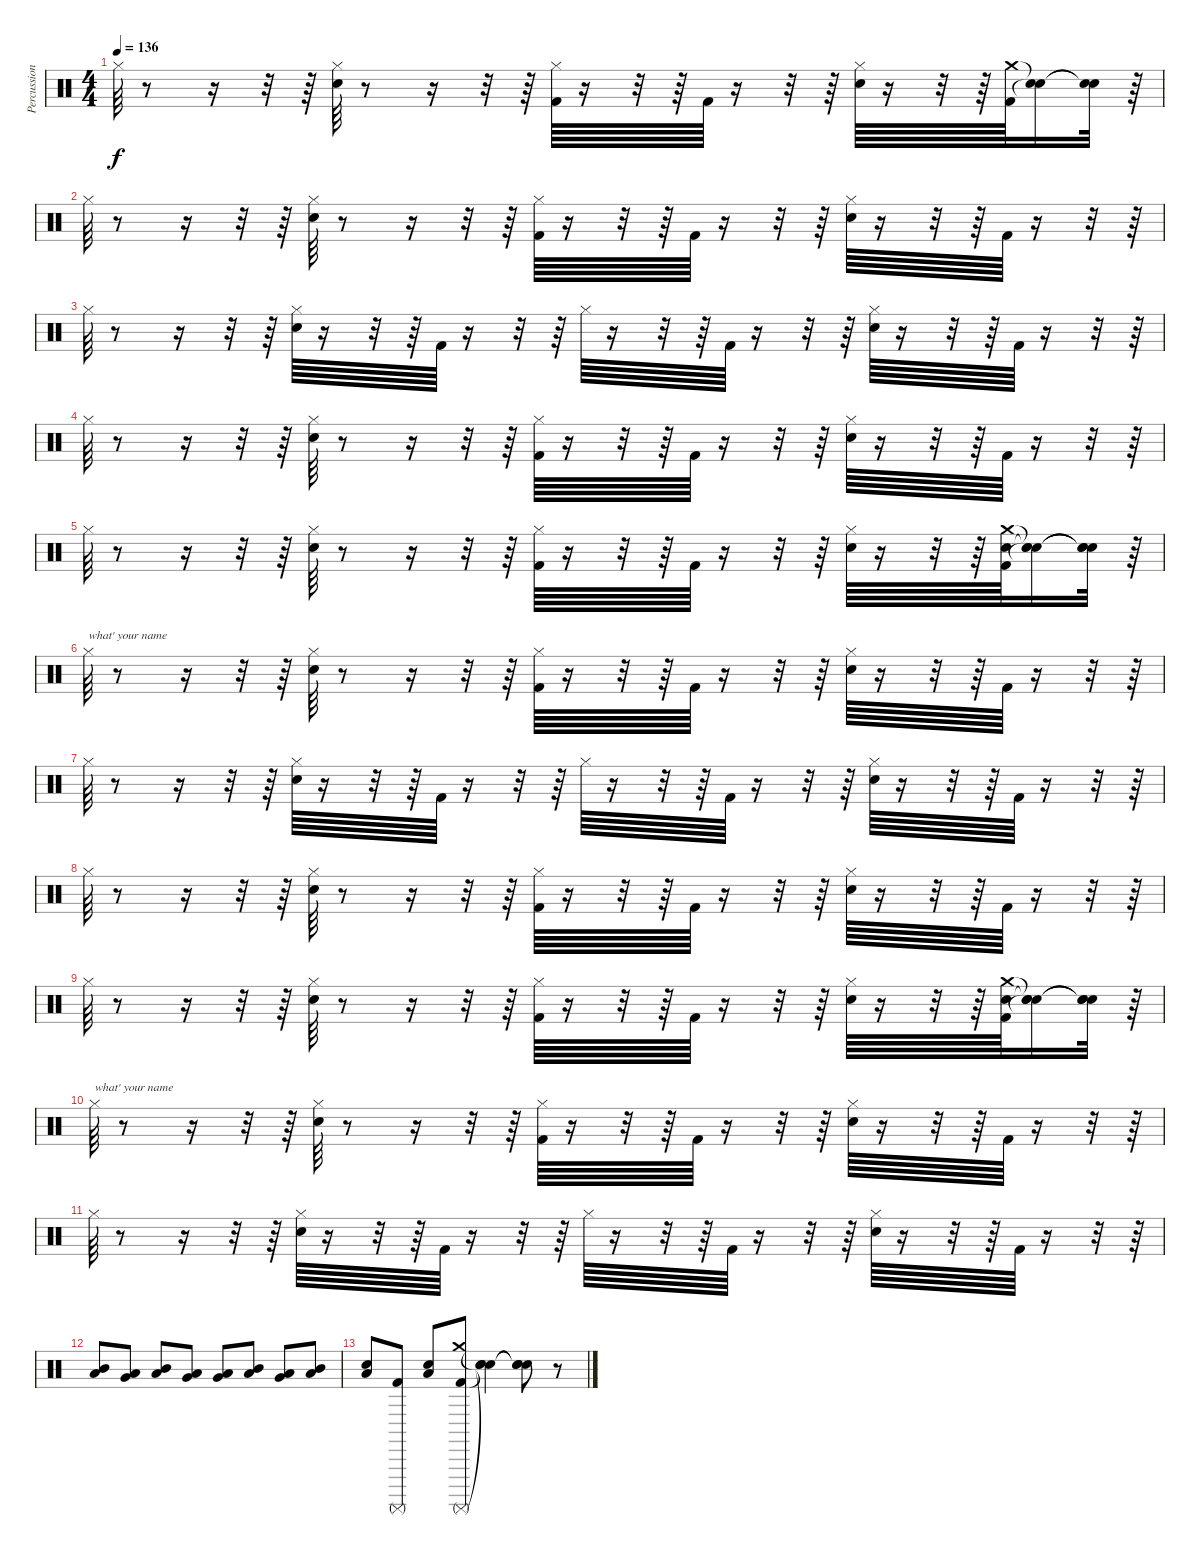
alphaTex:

\track ("Percussions" "Percussion") {instrument percussion}
\staff {score}
\articulation defaults
\ts (4 4)
\tempo 136
\clef neutral
\ks c "Hi-Hat (closed)".64{dy f}
r.8 r.16 r.32 r.64 ("Snare (hit) 2" "Hi-Hat (closed)").64 r.8 r.16 r.32 r.64 ("Kick (hit) 2" "Hi-Hat (closed)").64 r.16 r.32 r.64 "Kick (hit) 2".64 r.16 r.32 r.64 ("Snare (hit) 2" "Hi-Hat (closed)").64 r.16 r.32 r.64 ("Kick (hit) 2" "Crash medium (hit)").64 ("Snare (hit)"{t} "Snare (hit)"{t}).16 ("Snare (hit)"{t} "Snare (hit)"{t}).32 r.64 |
"Hi-Hat (closed)".64 r.8 r.16 r.32 r.64 ("Snare (hit) 2" "Hi-Hat (closed)").64 r.8 r.16 r.32 r.64 ("Kick (hit) 2" "Hi-Hat (closed)").64 r.16 r.32 r.64 "Kick (hit) 2".64 r.16 r.32 r.64 ("Snare (hit) 2" "Hi-Hat (closed)").64 r.16 r.32 r.64 "Kick (hit) 2".64 r.16 r.32 r.64 |
"Hi-Hat (closed)".64 r.8 r.16 r.32 r.64 ("Snare (hit) 2" "Hi-Hat (closed)").64 r.16 r.32 r.64 "Kick (hit) 2".64 r.16 r.32 r.64 "Hi-Hat (closed)".64 r.16 r.32 r.64 "Kick (hit) 2".64 r.16 r.32 r.64 ("Snare (hit) 2" "Hi-Hat (closed)").64 r.16 r.32 r.64 "Kick (hit) 2".64 r.16 r.32 r.64 |
"Hi-Hat (closed)".64 r.8 r.16 r.32 r.64 ("Snare (hit) 2" "Hi-Hat (closed)").64 r.8 r.16 r.32 r.64 ("Kick (hit) 2" "Hi-Hat (closed)").64 r.16 r.32 r.64 "Kick (hit) 2".64 r.16 r.32 r.64 ("Snare (hit) 2" "Hi-Hat (closed)").64 r.16 r.32 r.64 "Kick (hit) 2".64 r.16 r.32 r.64 |
"Hi-Hat (closed)".64 r.8 r.16 r.32 r.64 ("Snare (hit) 2" "Hi-Hat (closed)").64 r.8 r.16 r.32 r.64 ("Kick (hit) 2" "Hi-Hat (closed)").64 r.16 r.32 r.64 "Kick (hit) 2".64 r.16 r.32 r.64 ("Snare (hit) 2" "Hi-Hat (closed)").64 r.16 r.32 r.64 ("Kick (hit) 2" "Snare (hit) 2" "Crash medium (hit)").64 ("Snare (hit)"{t} "Snare (hit)"{t} "Snare (hit)"{t}).16 ("Snare (hit)"{t} "Snare (hit)"{t} "Snare (hit)"{t}).32 r.64 |
"Hi-Hat (closed)".64{txt "what' your name"} r.8 r.16 r.32 r.64 ("Snare (hit) 2" "Hi-Hat (closed)").64 r.8 r.16 r.32 r.64 ("Kick (hit) 2" "Hi-Hat (closed)").64 r.16 r.32 r.64 "Kick (hit) 2".64 r.16 r.32 r.64 ("Snare (hit) 2" "Hi-Hat (closed)").64 r.16 r.32 r.64 "Kick (hit) 2".64 r.16 r.32 r.64 |
"Hi-Hat (closed)".64 r.8 r.16 r.32 r.64 ("Snare (hit) 2" "Hi-Hat (closed)").64 r.16 r.32 r.64 "Kick (hit) 2".64 r.16 r.32 r.64 "Hi-Hat (closed)".64 r.16 r.32 r.64 "Kick (hit) 2".64 r.16 r.32 r.64 ("Snare (hit) 2" "Hi-Hat (closed)").64 r.16 r.32 r.64 "Kick (hit) 2".64 r.16 r.32 r.64 |
"Hi-Hat (closed)".64 r.8 r.16 r.32 r.64 ("Snare (hit) 2" "Hi-Hat (closed)").64 r.8 r.16 r.32 r.64 ("Kick (hit) 2" "Hi-Hat (closed)").64 r.16 r.32 r.64 "Kick (hit) 2".64 r.16 r.32 r.64 ("Snare (hit) 2" "Hi-Hat (closed)").64 r.16 r.32 r.64 "Kick (hit) 2".64 r.16 r.32 r.64 |
"Hi-Hat (closed)".64 r.8 r.16 r.32 r.64 ("Snare (hit) 2" "Hi-Hat (closed)").64 r.8 r.16 r.32 r.64 ("Kick (hit) 2" "Hi-Hat (closed)").64 r.16 r.32 r.64 "Kick (hit) 2".64 r.16 r.32 r.64 ("Snare (hit) 2" "Hi-Hat (closed)").64 r.16 r.32 r.64 ("Kick (hit) 2" "Snare (hit) 2" "Crash medium (hit)").64 ("Snare (hit)"{t} "Snare (hit)"{t} "Snare (hit)"{t}).16 ("Snare (hit)"{t} "Snare (hit)"{t} "Snare (hit)"{t}).32 r.64 |
"Hi-Hat (closed)".64{txt "what' your name"} r.8 r.16 r.32 r.64 ("Snare (hit) 2" "Hi-Hat (closed)").64 r.8 r.16 r.32 r.64 ("Kick (hit) 2" "Hi-Hat (closed)").64 r.16 r.32 r.64 "Kick (hit) 2".64 r.16 r.32 r.64 ("Snare (hit) 2" "Hi-Hat (closed)").64 r.16 r.32 r.64 "Kick (hit) 2".64 r.16 r.32 r.64 |
"Hi-Hat (closed)".64 r.8 r.16 r.32 r.64 ("Snare (hit) 2" "Hi-Hat (closed)").64 r.16 r.32 r.64 "Kick (hit) 2".64 r.16 r.32 r.64 "Hi-Hat (closed)".64 r.16 r.32 r.64 "Kick (hit) 2".64 r.16 r.32 r.64 ("Snare (hit) 2" "Hi-Hat (closed)").64 r.16 r.32 r.64 "Kick (hit) 2".64 r.16 r.32 r.64 |
("Low Tom (hit)" "Mid Tom (hit)").8 ("Low Floor Tom (hit)" "Very Low Tom (hit)").8 ("Low Tom (hit)" "Mid Tom (hit)").8 ("Low Floor Tom (hit)" "Very Low Tom (hit)").8 ("Low Floor Tom (hit)" "Very Low Tom (hit)").8 ("Low Tom (hit)" "Mid Tom (hit)").8 ("Low Floor Tom (hit)" "Very Low Tom (hit)").8 ("Low Tom (hit)" "Mid Tom (hit)").8 |
("Snare (hit) 2" "Low Tom (hit)").8 ("Surdo (mute)" "Kick (hit) 2").8 ("Snare (hit) 2" "Low Tom (hit)").8 ("Surdo (mute)" "Kick (hit) 2" "Crash medium (hit)").8 ("Snare (hit)"{t} "Snare (hit)"{t} "Snare (hit)"{t}).4 ("Snare (hit)"{t} "Snare (hit)"{t} "Snare (hit)"{t}).8 r.8
